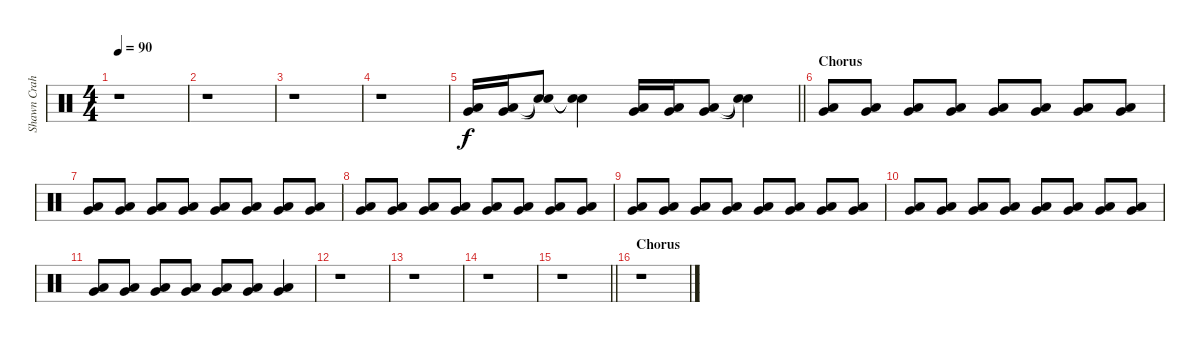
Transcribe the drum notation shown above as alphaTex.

\track ("Shawn Crahan" "Shawn Crah") {instrument percussion}
\staff {score}
\articulation defaults
\ts (4 4)
\tempo 90
\clef neutral
\ks c
r.1{dy f} |
r.1 |
r.1 |
r.1 |
\barLineRight lightlight
("Very Low Tom (hit)" "Low Floor Tom (hit)").16 ("Very Low Tom (hit)" "Low Floor Tom (hit)").16 ("Snare (hit)"{t} "Snare (hit)"{t}).8 ("Snare (hit)"{t} "Snare (hit)"{t}).4 ("Very Low Tom (hit)" "Low Floor Tom (hit)").16 ("Very Low Tom (hit)" "Low Floor Tom (hit)").16 ("Very Low Tom (hit)" "Low Floor Tom (hit)").8 ("Snare (hit)"{t} "Snare (hit)"{t}).4 |
\section ("" "Chorus")
("Very Low Tom (hit)" "Low Floor Tom (hit)").8 ("Very Low Tom (hit)" "Low Floor Tom (hit)").8 ("Very Low Tom (hit)" "Low Floor Tom (hit)").8 ("Very Low Tom (hit)" "Low Floor Tom (hit)").8 ("Very Low Tom (hit)" "Low Floor Tom (hit)").8 ("Very Low Tom (hit)" "Low Floor Tom (hit)").8 ("Very Low Tom (hit)" "Low Floor Tom (hit)").8 ("Very Low Tom (hit)" "Low Floor Tom (hit)").8 |
("Very Low Tom (hit)" "Low Floor Tom (hit)").8 ("Very Low Tom (hit)" "Low Floor Tom (hit)").8 ("Very Low Tom (hit)" "Low Floor Tom (hit)").8 ("Very Low Tom (hit)" "Low Floor Tom (hit)").8 ("Very Low Tom (hit)" "Low Floor Tom (hit)").8 ("Very Low Tom (hit)" "Low Floor Tom (hit)").8 ("Very Low Tom (hit)" "Low Floor Tom (hit)").8 ("Very Low Tom (hit)" "Low Floor Tom (hit)").8 |
("Very Low Tom (hit)" "Low Floor Tom (hit)").8 ("Very Low Tom (hit)" "Low Floor Tom (hit)").8 ("Very Low Tom (hit)" "Low Floor Tom (hit)").8 ("Very Low Tom (hit)" "Low Floor Tom (hit)").8 ("Very Low Tom (hit)" "Low Floor Tom (hit)").8 ("Very Low Tom (hit)" "Low Floor Tom (hit)").8 ("Very Low Tom (hit)" "Low Floor Tom (hit)").8 ("Very Low Tom (hit)" "Low Floor Tom (hit)").8 |
("Very Low Tom (hit)" "Low Floor Tom (hit)").8 ("Very Low Tom (hit)" "Low Floor Tom (hit)").8 ("Very Low Tom (hit)" "Low Floor Tom (hit)").8 ("Very Low Tom (hit)" "Low Floor Tom (hit)").8 ("Very Low Tom (hit)" "Low Floor Tom (hit)").8 ("Very Low Tom (hit)" "Low Floor Tom (hit)").8 ("Very Low Tom (hit)" "Low Floor Tom (hit)").8 ("Very Low Tom (hit)" "Low Floor Tom (hit)").8 |
("Very Low Tom (hit)" "Low Floor Tom (hit)").8 ("Very Low Tom (hit)" "Low Floor Tom (hit)").8 ("Very Low Tom (hit)" "Low Floor Tom (hit)").8 ("Very Low Tom (hit)" "Low Floor Tom (hit)").8 ("Very Low Tom (hit)" "Low Floor Tom (hit)").8 ("Very Low Tom (hit)" "Low Floor Tom (hit)").8 ("Very Low Tom (hit)" "Low Floor Tom (hit)").8 ("Very Low Tom (hit)" "Low Floor Tom (hit)").8 |
("Very Low Tom (hit)" "Low Floor Tom (hit)").8 ("Very Low Tom (hit)" "Low Floor Tom (hit)").8 ("Very Low Tom (hit)" "Low Floor Tom (hit)").8 ("Very Low Tom (hit)" "Low Floor Tom (hit)").8 ("Very Low Tom (hit)" "Low Floor Tom (hit)").8 ("Very Low Tom (hit)" "Low Floor Tom (hit)").8 ("Very Low Tom (hit)" "Low Floor Tom (hit)").4 |
r.1 |
r.1 |
r.1 |
\barLineRight lightlight
r.1 |
\section ("" "Chorus")
r.1
